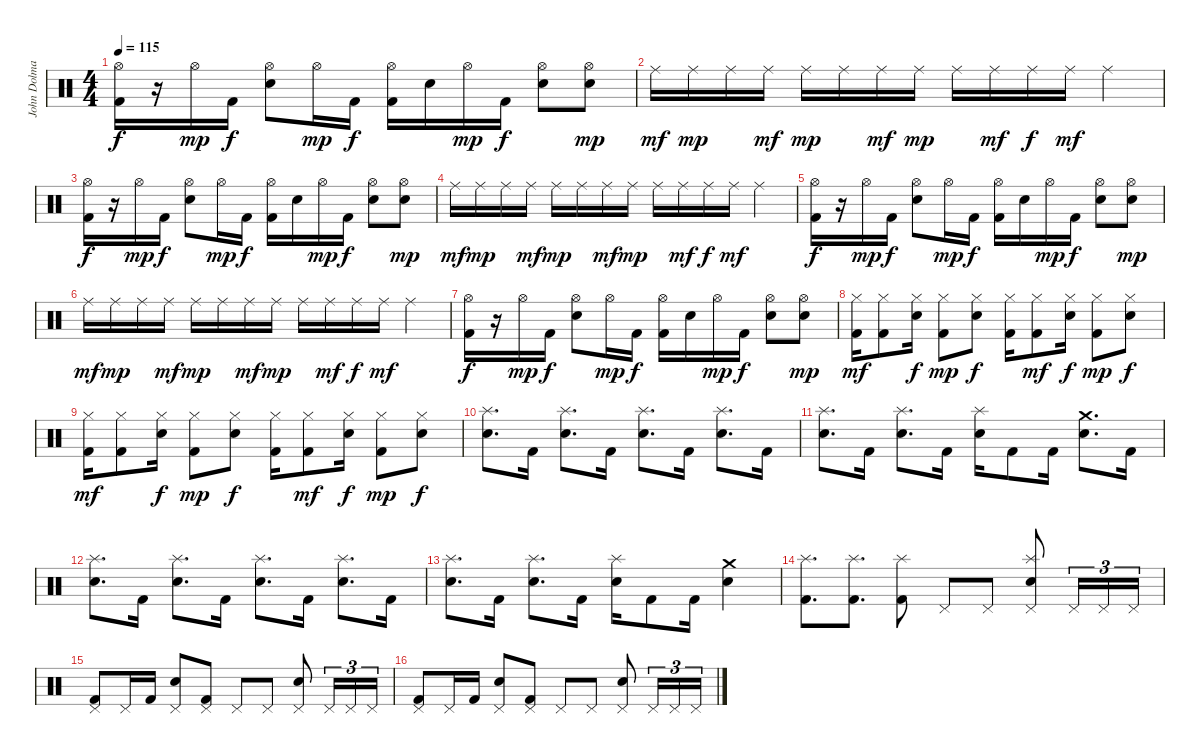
\track ("John Dolmayan" "John Dolma") {instrument percussion}
\staff {score}
\articulation defaults
\ts (4 4)
\tempo 115
\clef neutral
\ks c
("Hi-Hat (open)" "Kick (hit) 2").16{dy f} r.16 "Hi-Hat (open)".16{dy mp} "Kick (hit) 2".16{dy f} ("Hi-Hat (open)" "Electric Snare (hit)").8 "Hi-Hat (open)".16{dy mp} "Kick (hit) 2".16{dy f} ("Hi-Hat (open)" "Kick (hit) 2").16 "Electric Snare (hit)".16 "Hi-Hat (open)".16{dy mp} "Kick (hit) 2".16{dy f} ("Hi-Hat (open)" "Electric Snare (hit)").8 ("Hi-Hat (open)" "Electric Snare (hit)").8{dy mp} |
"Ride (middle)".16{dy mf} "Ride (middle)".16{dy mp} "Ride (middle)".16 "Ride (middle)".16{dy mf} "Ride (middle)".16{dy mp} "Ride (middle)".16 "Ride (middle)".16{dy mf} "Ride (middle)".16{dy mp} "Ride (middle)".16 "Ride (middle)".16{dy mf} "Ride (middle)".16{dy f} "Ride (middle)".16{dy mf} "Ride (middle)".4 |
("Hi-Hat (open)" "Kick (hit) 2").16{dy f} r.16 "Hi-Hat (open)".16{dy mp} "Kick (hit) 2".16{dy f} ("Hi-Hat (open)" "Electric Snare (hit)").8 "Hi-Hat (open)".16{dy mp} "Kick (hit) 2".16{dy f} ("Hi-Hat (open)" "Kick (hit) 2").16 "Electric Snare (hit)".16 "Hi-Hat (open)".16{dy mp} "Kick (hit) 2".16{dy f} ("Hi-Hat (open)" "Electric Snare (hit)").8 ("Hi-Hat (open)" "Electric Snare (hit)").8{dy mp} |
"Ride (middle)".16{dy mf} "Ride (middle)".16{dy mp} "Ride (middle)".16 "Ride (middle)".16{dy mf} "Ride (middle)".16{dy mp} "Ride (middle)".16 "Ride (middle)".16{dy mf} "Ride (middle)".16{dy mp} "Ride (middle)".16 "Ride (middle)".16{dy mf} "Ride (middle)".16{dy f} "Ride (middle)".16{dy mf} "Ride (middle)".4 |
("Hi-Hat (open)" "Kick (hit) 2").16{dy f} r.16 "Hi-Hat (open)".16{dy mp} "Kick (hit) 2".16{dy f} ("Hi-Hat (open)" "Electric Snare (hit)").8 "Hi-Hat (open)".16{dy mp} "Kick (hit) 2".16{dy f} ("Hi-Hat (open)" "Kick (hit) 2").16 "Electric Snare (hit)".16 "Hi-Hat (open)".16{dy mp} "Kick (hit) 2".16{dy f} ("Hi-Hat (open)" "Electric Snare (hit)").8 ("Hi-Hat (open)" "Electric Snare (hit)").8{dy mp} |
"Ride (middle)".16{dy mf} "Ride (middle)".16{dy mp} "Ride (middle)".16 "Ride (middle)".16{dy mf} "Ride (middle)".16{dy mp} "Ride (middle)".16 "Ride (middle)".16{dy mf} "Ride (middle)".16{dy mp} "Ride (middle)".16 "Ride (middle)".16{dy mf} "Ride (middle)".16{dy f} "Ride (middle)".16{dy mf} "Ride (middle)".4 |
("Hi-Hat (open)" "Kick (hit) 2").16{dy f} r.16 "Hi-Hat (open)".16{dy mp} "Kick (hit) 2".16{dy f} ("Hi-Hat (open)" "Electric Snare (hit)").8 "Hi-Hat (open)".16{dy mp} "Kick (hit) 2".16{dy f} ("Hi-Hat (open)" "Kick (hit) 2").16 "Electric Snare (hit)".16 "Hi-Hat (open)".16{dy mp} "Kick (hit) 2".16{dy f} ("Hi-Hat (open)" "Electric Snare (hit)").8 ("Hi-Hat (open)" "Electric Snare (hit)").8{dy mp} |
("Hi-Hat (closed)" "Kick (hit) 2").16{dy mf} ("Hi-Hat (closed)" "Kick (hit) 2").8 ("Hi-Hat (closed)" "Electric Snare (hit)").16{dy f} ("Hi-Hat (closed)" "Kick (hit) 2").8{dy mp} ("Hi-Hat (closed)" "Electric Snare (hit)").8{dy f} ("Hi-Hat (closed)" "Kick (hit) 2").16 ("Hi-Hat (closed)" "Kick (hit) 2").8{dy mf} ("Hi-Hat (closed)" "Electric Snare (hit)").16{dy f} ("Hi-Hat (closed)" "Kick (hit) 2").8{dy mp} ("Hi-Hat (closed)" "Electric Snare (hit)").8{dy f} |
("Hi-Hat (closed)" "Kick (hit) 2").16{dy mf} ("Hi-Hat (closed)" "Kick (hit) 2").8 ("Hi-Hat (closed)" "Electric Snare (hit)").16{dy f} ("Hi-Hat (closed)" "Kick (hit) 2").8{dy mp} ("Hi-Hat (closed)" "Electric Snare (hit)").8{dy f} ("Hi-Hat (closed)" "Kick (hit) 2").16 ("Hi-Hat (closed)" "Kick (hit) 2").8{dy mf} ("Hi-Hat (closed)" "Electric Snare (hit)").16{dy f} ("Hi-Hat (closed)" "Kick (hit) 2").8{dy mp} ("Hi-Hat (closed)" "Electric Snare (hit)").8{dy f} |
("Splash (hit)" "Electric Snare (hit)").8{d} "Kick (hit) 2".16 ("Splash (hit)" "Electric Snare (hit)").8{d} "Kick (hit) 2".16 ("Splash (hit)" "Electric Snare (hit)").8{d} "Kick (hit) 2".16 ("Splash (hit)" "Electric Snare (hit)").8{d} "Kick (hit) 2".16 |
("Splash (hit)" "Electric Snare (hit)").8{d} "Kick (hit) 2".16 ("Splash (hit)" "Electric Snare (hit)").8{d} "Kick (hit) 2".16 ("Splash (hit)" "Electric Snare (hit)").16 "Kick (hit) 2".8 "Kick (hit) 2".16 ("Crash medium (hit)" "Electric Snare (hit)").8{d} "Kick (hit) 2".16 |
("Splash (hit)" "Electric Snare (hit)").8{d} "Kick (hit) 2".16 ("Splash (hit)" "Electric Snare (hit)").8{d} "Kick (hit) 2".16 ("Splash (hit)" "Electric Snare (hit)").8{d} "Kick (hit) 2".16 ("Splash (hit)" "Electric Snare (hit)").8{d} "Kick (hit) 2".16 |
("Splash (hit)" "Electric Snare (hit)").8{d} "Kick (hit) 2".16 ("Splash (hit)" "Electric Snare (hit)").8{d} "Kick (hit) 2".16 ("Splash (hit)" "Electric Snare (hit)").16 "Kick (hit) 2".8 "Kick (hit) 2".16 ("Crash medium (hit)" "Electric Snare (hit)").4 |
("Splash (hit)" "Kick (hit) 2").8{d} ("Splash (hit)" "Kick (hit) 2").8{d} ("Splash (hit)" "Kick (hit) 2").8 "Pedal Hi-Hat (hit)".8 "Pedal Hi-Hat (hit)".8 ("Pedal Hi-Hat (hit)" "Splash (hit)" "Electric Snare (hit)").8 "Pedal Hi-Hat (hit)".16{tu (3 2)} "Pedal Hi-Hat (hit)".16{tu (3 2)} "Pedal Hi-Hat (hit)".16{tu (3 2)} |
("Pedal Hi-Hat (hit)" "Kick (hit) 2").8 "Pedal Hi-Hat (hit)".16 "Kick (hit) 2".16 ("Pedal Hi-Hat (hit)" "Electric Snare (hit)").8 ("Pedal Hi-Hat (hit)" "Kick (hit) 2").8 "Pedal Hi-Hat (hit)".8 "Pedal Hi-Hat (hit)".8 ("Pedal Hi-Hat (hit)" "Electric Snare (hit)").8 "Pedal Hi-Hat (hit)".16{tu (3 2)} "Pedal Hi-Hat (hit)".16{tu (3 2)} "Pedal Hi-Hat (hit)".16{tu (3 2)} |
("Pedal Hi-Hat (hit)" "Kick (hit) 2").8 "Pedal Hi-Hat (hit)".16 "Kick (hit) 2".16 ("Pedal Hi-Hat (hit)" "Electric Snare (hit)").8 ("Pedal Hi-Hat (hit)" "Kick (hit) 2").8 "Pedal Hi-Hat (hit)".8 "Pedal Hi-Hat (hit)".8 ("Pedal Hi-Hat (hit)" "Electric Snare (hit)").8 "Pedal Hi-Hat (hit)".16{tu (3 2)} "Pedal Hi-Hat (hit)".16{tu (3 2)} "Pedal Hi-Hat (hit)".16{tu (3 2)}
